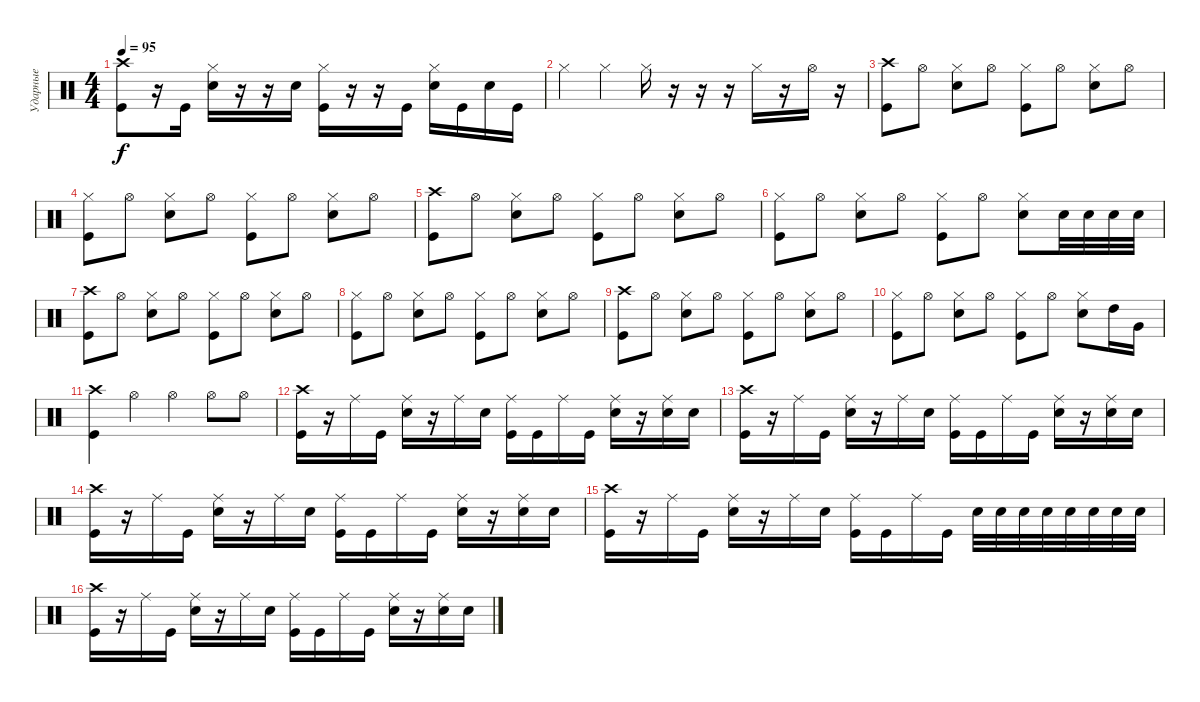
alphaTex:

\track ("Ударные" "Ударные") {instrument percussion}
\staff {score}
\articulation defaults
\ts (4 4)
\tempo 95
\clef neutral
\ks c
("Kick (hit)" "Crash high (hit)").8{dy f} r.16 "Kick (hit)".16 ("Snare (hit) 2" "Hi-Hat (closed)").16 r.16 r.16 "Snare (hit) 2".16 ("Kick (hit)" "Hi-Hat (closed)").16 r.16 r.16 "Kick (hit)".16 ("Snare (hit) 2" "Hi-Hat (closed)").16 "Kick (hit)".16 "Snare (hit) 2".16 "Kick (hit)".16 |
"Hi-Hat (closed)".4 "Hi-Hat (closed)".4 "Hi-Hat (closed)".16 r.16 r.16 r.16 "Hi-Hat (closed)".16 r.16 "Hi-Hat (open)".16 r.16 |
("Kick (hit)" "Crash high (hit)").8 "Hi-Hat (open)".8 ("Snare (hit) 2" "Hi-Hat (closed)").8 "Hi-Hat (open)".8 ("Kick (hit)" "Hi-Hat (closed)").8 "Hi-Hat (open)".8 ("Snare (hit) 2" "Hi-Hat (closed)").8 "Hi-Hat (open)".8 |
("Kick (hit)" "Hi-Hat (closed)").8 "Hi-Hat (open)".8 ("Snare (hit) 2" "Hi-Hat (closed)").8 "Hi-Hat (open)".8 ("Kick (hit)" "Hi-Hat (closed)").8 "Hi-Hat (open)".8 ("Snare (hit) 2" "Hi-Hat (closed)").8 "Hi-Hat (open)".8 |
("Kick (hit)" "Crash high (hit)").8 "Hi-Hat (open)".8 ("Snare (hit) 2" "Hi-Hat (closed)").8 "Hi-Hat (open)".8 ("Kick (hit)" "Hi-Hat (closed)").8 "Hi-Hat (open)".8 ("Snare (hit) 2" "Hi-Hat (closed)").8 "Hi-Hat (open)".8 |
("Kick (hit)" "Hi-Hat (closed)").8 "Hi-Hat (open)".8 ("Snare (hit) 2" "Hi-Hat (closed)").8 "Hi-Hat (open)".8 ("Kick (hit)" "Hi-Hat (closed)").8 "Hi-Hat (open)".8 ("Snare (hit) 2" "Hi-Hat (closed)").8 "Snare (hit) 2".32 "Snare (hit) 2".32 "Snare (hit) 2".32 "Snare (hit) 2".32 |
("Kick (hit)" "Crash high (hit)").8 "Hi-Hat (open)".8 ("Snare (hit) 2" "Hi-Hat (closed)").8 "Hi-Hat (open)".8 ("Kick (hit)" "Hi-Hat (closed)").8 "Hi-Hat (open)".8 ("Snare (hit) 2" "Hi-Hat (closed)").8 "Hi-Hat (open)".8 |
("Kick (hit)" "Hi-Hat (closed)").8 "Hi-Hat (open)".8 ("Snare (hit) 2" "Hi-Hat (closed)").8 "Hi-Hat (open)".8 ("Kick (hit)" "Hi-Hat (closed)").8 "Hi-Hat (open)".8 ("Snare (hit) 2" "Hi-Hat (closed)").8 "Hi-Hat (open)".8 |
("Kick (hit)" "Crash high (hit)").8 "Hi-Hat (open)".8 ("Snare (hit) 2" "Hi-Hat (closed)").8 "Hi-Hat (open)".8 ("Kick (hit)" "Hi-Hat (closed)").8 "Hi-Hat (open)".8 ("Snare (hit) 2" "Hi-Hat (closed)").8 "Hi-Hat (open)".8 |
("Kick (hit)" "Hi-Hat (closed)").8 "Hi-Hat (open)".8 ("Snare (hit) 2" "Hi-Hat (closed)").8 "Hi-Hat (open)".8 ("Kick (hit)" "Hi-Hat (closed)").8 "Hi-Hat (open)".8 ("Snare (hit) 2" "Hi-Hat (closed)").8 "High Tom (hit)".16 "Very Low Tom (hit)".16 |
("Crash high (hit)" "Kick (hit)").4 "Hi-Hat (open)".4 "Hi-Hat (open)".4 "Hi-Hat (open)".8 "Hi-Hat (open)".8 |
("Kick (hit)" "Crash high (hit)").16 r.16 "Ride (middle)".16 "Kick (hit)".16 ("Ride (middle)" "Snare (hit) 2").16 r.16 "Ride (middle)".16 "Snare (hit) 2".16 ("Ride (middle)" "Kick (hit)").16 "Kick (hit)".16 "Ride (middle)".16 "Kick (hit)".16 ("Ride (middle)" "Snare (hit) 2").16 r.16 ("Ride (middle)" "Snare (hit) 2").16 "Snare (hit) 2".16 |
("Kick (hit)" "Crash high (hit)").16 r.16 "Ride (middle)".16 "Kick (hit)".16 ("Ride (middle)" "Snare (hit) 2").16 r.16 "Ride (middle)".16 "Snare (hit) 2".16 ("Ride (middle)" "Kick (hit)").16 "Kick (hit)".16 "Ride (middle)".16 "Kick (hit)".16 ("Ride (middle)" "Snare (hit) 2").16 r.16 ("Ride (middle)" "Snare (hit) 2").16 "Snare (hit) 2".16 |
("Kick (hit)" "Crash high (hit)").16 r.16 "Ride (middle)".16 "Kick (hit)".16 ("Ride (middle)" "Snare (hit) 2").16 r.16 "Ride (middle)".16 "Snare (hit) 2".16 ("Ride (middle)" "Kick (hit)").16 "Kick (hit)".16 "Ride (middle)".16 "Kick (hit)".16 ("Ride (middle)" "Snare (hit) 2").16 r.16 ("Ride (middle)" "Snare (hit) 2").16 "Snare (hit) 2".16 |
("Kick (hit)" "Crash high (hit)").16 r.16 "Ride (middle)".16 "Kick (hit)".16 ("Ride (middle)" "Snare (hit) 2").16 r.16 "Ride (middle)".16 "Snare (hit) 2".16 ("Ride (middle)" "Kick (hit)").16 "Kick (hit)".16 "Ride (middle)".16 "Kick (hit)".16 "Snare (hit) 2".32 "Snare (hit) 2".32 "Snare (hit) 2".32 "Snare (hit) 2".32 "Snare (hit) 2".32 "Snare (hit) 2".32 "Snare (hit) 2".32 "Snare (hit) 2".32 |
("Kick (hit)" "Crash high (hit)").16 r.16 "Ride (middle)".16 "Kick (hit)".16 ("Ride (middle)" "Snare (hit) 2").16 r.16 "Ride (middle)".16 "Snare (hit) 2".16 ("Ride (middle)" "Kick (hit)").16 "Kick (hit)".16 "Ride (middle)".16 "Kick (hit)".16 ("Ride (middle)" "Snare (hit) 2").16 r.16 ("Ride (middle)" "Snare (hit) 2").16 "Snare (hit) 2".16
